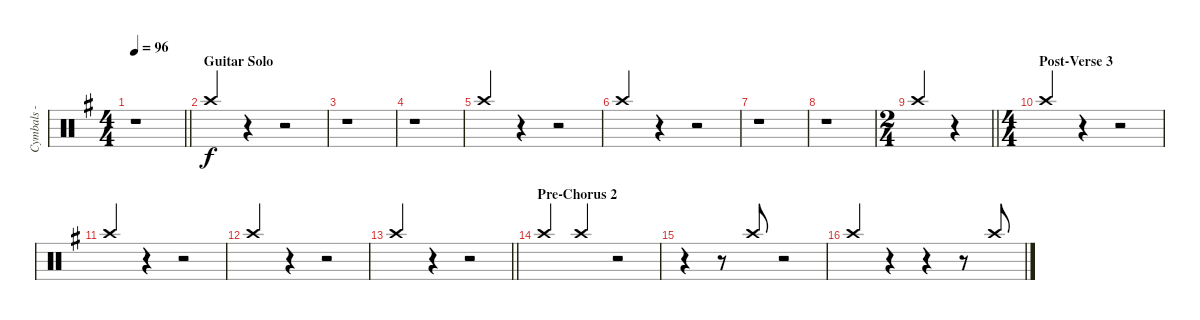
\track ("Cymbals - crash" "Cymbals - ") {instrument percussion}
\staff {score}
\articulation defaults
\ts (4 4)
\tempo 96
\clef neutral
\barLineRight lightlight
\ks g
r.1{dy f} |
\section ("" "Guitar Solo")
"Crash high (hit)".4{beam Up} r.4 r.2 |
r.1 |
r.1 |
"Crash high (hit)".4{beam Up} r.4 r.2 |
"Crash high (hit)".4{beam Up} r.4 r.2 |
r.1 |
r.1 |
\ts (2 4)
\barLineRight lightlight "Crash high (hit)".4{beam Up}
r.4 |
\ts (4 4)
\section ("" "Post-Verse 3")
"Crash high (hit)".4{beam Up} r.4 r.2 |
"Crash high (hit)".4{beam Up} r.4 r.2 |
"Crash high (hit)".4{beam Up} r.4 r.2 |
\barLineRight lightlight "Crash high (hit)".4{beam Up}
r.4 r.2 |
\section ("" "Pre-Chorus 2")
"Crash high (hit)".4{beam Up} "Crash high (hit)".4{beam Up} r.2 |
r.4{beam merge} r.8 "Crash high (hit)".8{beam Up} r.2 |
"Crash high (hit)".4{beam Up} r.4 r.4 r.8 "Crash high (hit)".8{beam Up}
